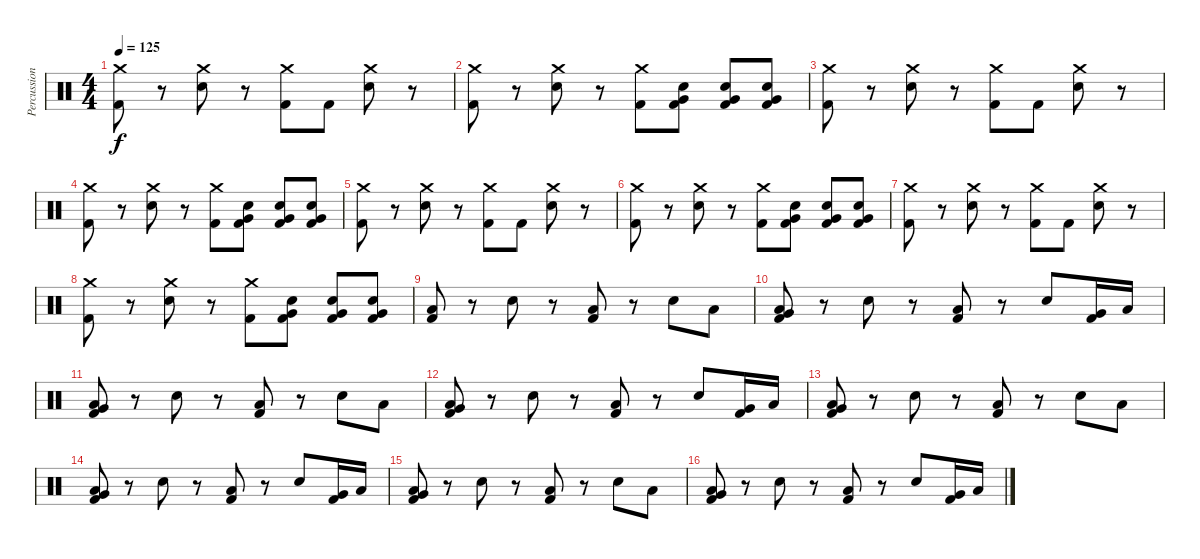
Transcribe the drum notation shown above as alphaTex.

\track ("Percussion" "Percussion") {instrument percussion}
\staff {score}
\articulation defaults
\ts (4 4)
\tempo 125
\clef neutral
\ks c
("Crash medium (hit)" "Kick (hit) 2").8{dy f} r.8 ("Crash medium (hit)" "Electric Snare (hit)").8 r.8 ("Crash medium (hit)" "Kick (hit) 2").8 "Kick (hit) 2".8 ("Crash medium (hit)" "Electric Snare (hit)").8 r.8 |
("Crash medium (hit)" "Kick (hit) 2").8 r.8 ("Crash medium (hit)" "Electric Snare (hit)").8 r.8 ("Crash medium (hit)" "Kick (hit) 2").8 ("Very Low Tom (hit)" "Electric Snare (hit)" "Kick (hit) 2").8 ("Very Low Tom (hit)" "Electric Snare (hit)" "Kick (hit) 2").8 ("Very Low Tom (hit)" "Electric Snare (hit)" "Kick (hit) 2").8 |
("Crash medium (hit)" "Kick (hit) 2").8 r.8 ("Crash medium (hit)" "Electric Snare (hit)").8 r.8 ("Crash medium (hit)" "Kick (hit) 2").8 "Kick (hit) 2".8 ("Crash medium (hit)" "Electric Snare (hit)").8 r.8 |
("Crash medium (hit)" "Kick (hit) 2").8 r.8 ("Crash medium (hit)" "Electric Snare (hit)").8 r.8 ("Crash medium (hit)" "Kick (hit) 2").8 ("Very Low Tom (hit)" "Electric Snare (hit)" "Kick (hit) 2").8 ("Very Low Tom (hit)" "Electric Snare (hit)" "Kick (hit) 2").8 ("Very Low Tom (hit)" "Electric Snare (hit)" "Kick (hit) 2").8 |
("Crash medium (hit)" "Kick (hit) 2").8 r.8 ("Crash medium (hit)" "Electric Snare (hit)").8 r.8 ("Crash medium (hit)" "Kick (hit) 2").8 "Kick (hit) 2".8 ("Crash medium (hit)" "Electric Snare (hit)").8 r.8 |
("Crash medium (hit)" "Kick (hit) 2").8 r.8 ("Crash medium (hit)" "Electric Snare (hit)").8 r.8 ("Crash medium (hit)" "Kick (hit) 2").8 ("Very Low Tom (hit)" "Electric Snare (hit)" "Kick (hit) 2").8 ("Very Low Tom (hit)" "Electric Snare (hit)" "Kick (hit) 2").8 ("Very Low Tom (hit)" "Electric Snare (hit)" "Kick (hit) 2").8 |
("Crash medium (hit)" "Kick (hit) 2").8 r.8 ("Crash medium (hit)" "Electric Snare (hit)").8 r.8 ("Crash medium (hit)" "Kick (hit) 2").8 "Kick (hit) 2".8 ("Crash medium (hit)" "Electric Snare (hit)").8 r.8 |
("Crash medium (hit)" "Kick (hit) 2").8 r.8 ("Crash medium (hit)" "Electric Snare (hit)").8 r.8 ("Crash medium (hit)" "Kick (hit) 2").8 ("Very Low Tom (hit)" "Electric Snare (hit)" "Kick (hit) 2").8 ("Very Low Tom (hit)" "Electric Snare (hit)" "Kick (hit) 2").8 ("Very Low Tom (hit)" "Electric Snare (hit)" "Kick (hit) 2").8 |
("Low Floor Tom (hit)" "Kick (hit) 2").8 r.8 "Electric Snare (hit)".8 r.8 ("Low Floor Tom (hit)" "Kick (hit) 2").8 r.8 "Electric Snare (hit)".8 "Low Tom (hit)".8 |
("Kick (hit) 2" "Very Low Tom (hit)" "Low Floor Tom (hit)").8 r.8 "Electric Snare (hit)".8 r.8 ("Kick (hit) 2" "Low Floor Tom (hit)").8 r.8 "Electric Snare (hit)".8 ("Kick (hit) 2" "Very Low Tom (hit)").16 "Low Tom (hit)".16 |
("Kick (hit) 2" "Very Low Tom (hit)" "Low Floor Tom (hit)").8 r.8 "Electric Snare (hit)".8 r.8 ("Kick (hit) 2" "Low Floor Tom (hit)").8 r.8 "Electric Snare (hit)".8 "Low Tom (hit)".8 |
("Kick (hit) 2" "Very Low Tom (hit)" "Low Floor Tom (hit)").8 r.8 "Electric Snare (hit)".8 r.8 ("Kick (hit) 2" "Low Floor Tom (hit)").8 r.8 "Electric Snare (hit)".8 ("Kick (hit) 2" "Very Low Tom (hit)").16 "Low Tom (hit)".16 |
("Kick (hit) 2" "Very Low Tom (hit)" "Low Floor Tom (hit)").8 r.8 "Electric Snare (hit)".8 r.8 ("Kick (hit) 2" "Low Floor Tom (hit)").8 r.8 "Electric Snare (hit)".8 "Low Tom (hit)".8 |
("Kick (hit) 2" "Very Low Tom (hit)" "Low Floor Tom (hit)").8 r.8 "Electric Snare (hit)".8 r.8 ("Kick (hit) 2" "Low Floor Tom (hit)").8 r.8 "Electric Snare (hit)".8 ("Kick (hit) 2" "Very Low Tom (hit)").16 "Low Tom (hit)".16 |
("Kick (hit) 2" "Very Low Tom (hit)" "Low Floor Tom (hit)").8 r.8 "Electric Snare (hit)".8 r.8 ("Kick (hit) 2" "Low Floor Tom (hit)").8 r.8 "Electric Snare (hit)".8 "Low Tom (hit)".8 |
("Kick (hit) 2" "Very Low Tom (hit)" "Low Floor Tom (hit)").8 r.8 "Electric Snare (hit)".8 r.8 ("Kick (hit) 2" "Low Floor Tom (hit)").8 r.8 "Electric Snare (hit)".8 ("Kick (hit) 2" "Very Low Tom (hit)").16 "Low Tom (hit)".16
